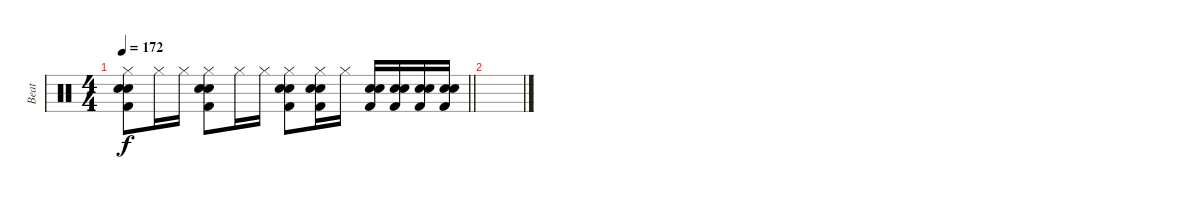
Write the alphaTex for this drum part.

\track ("Beat" "Beat") {instrument percussion}
\staff {score}
\articulation defaults
\ts (4 4)
\tempo 172
\clef neutral
\barLineRight lightlight
\ks c
("Kick (hit) 2" "Hi-Hat (closed)" "Snare (hit) 2" "Hand Clap (hit)").8{dy f} "Hi-Hat (closed)".16 "Hi-Hat (closed)".16 ("Kick (hit) 2" "Hi-Hat (closed)" "Snare (hit) 2" "Hand Clap (hit)").8 "Hi-Hat (closed)".16 "Hi-Hat (closed)".16 ("Kick (hit) 2" "Hi-Hat (closed)" "Snare (hit) 2" "Hand Clap (hit)").8 ("Kick (hit) 2" "Hi-Hat (closed)" "Snare (hit) 2" "Hand Clap (hit)").16 "Hi-Hat (closed)".16 ("Kick (hit) 2" "Snare (hit) 2" "Hand Clap (hit)").16 ("Kick (hit) 2" "Snare (hit) 2" "Hand Clap (hit)").16 ("Kick (hit) 2" "Snare (hit) 2" "Hand Clap (hit)").16 ("Kick (hit) 2" "Snare (hit) 2" "Hand Clap (hit)").16 |
\section ("" " ")
